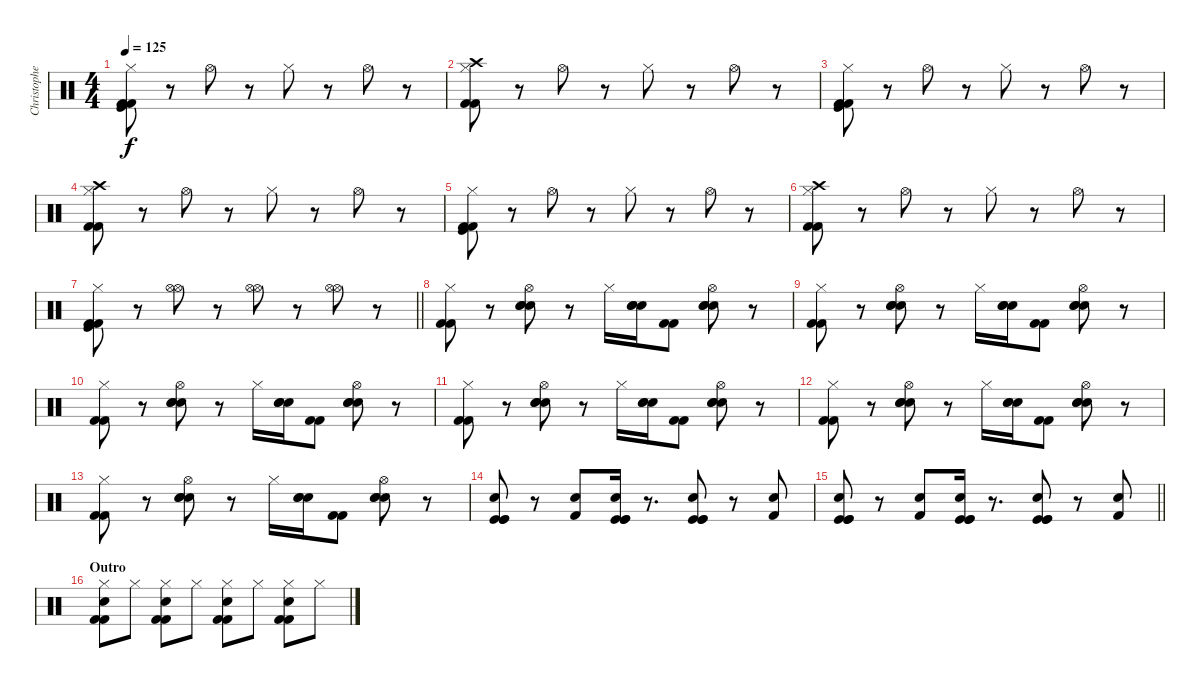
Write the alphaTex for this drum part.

\track ("Christopher S. (Drums)" "Christophe") {instrument percussion}
\staff {score}
\articulation defaults
\ts (4 4)
\tempo 125
\clef neutral
\ks c
("Hi-Hat (closed)" "Kick (hit) 2" "Kick (hit) 2" "Kick (hit)").8{dy f} r.8 "Hi-Hat (open)".8 r.8 "Hi-Hat (closed)".8 r.8 "Hi-Hat (open)".8 r.8 |
("Hi-Hat (closed)" "Kick (hit) 2" "Kick (hit) 2" "Crash high (hit)").8 r.8 "Hi-Hat (open)".8 r.8 "Hi-Hat (closed)".8 r.8 "Hi-Hat (open)".8 r.8 |
("Hi-Hat (closed)" "Kick (hit) 2" "Kick (hit) 2" "Kick (hit)").8 r.8 "Hi-Hat (open)".8 r.8 "Hi-Hat (closed)".8 r.8 "Hi-Hat (open)".8 r.8 |
("Hi-Hat (closed)" "Kick (hit) 2" "Kick (hit) 2" "Crash high (hit)").8 r.8 "Hi-Hat (open)".8 r.8 "Hi-Hat (closed)".8 r.8 "Hi-Hat (open)".8 r.8 |
("Hi-Hat (closed)" "Kick (hit) 2" "Kick (hit) 2" "Kick (hit)").8 r.8 "Hi-Hat (open)".8 r.8 "Hi-Hat (closed)".8 r.8 "Hi-Hat (open)".8 r.8 |
("Hi-Hat (closed)" "Kick (hit) 2" "Kick (hit) 2" "Crash high (hit)").8 r.8 "Hi-Hat (open)".8 r.8 "Hi-Hat (closed)".8 r.8 "Hi-Hat (open)".8 r.8 |
\barLineRight lightlight
("Hi-Hat (closed)" "Kick (hit) 2" "Kick (hit) 2" "Kick (hit)").8 r.8 ("Hi-Hat (open)" "Hi-Hat (open)").8 r.8 ("Hi-Hat (open)" "Hi-Hat (open)").8 r.8 ("Hi-Hat (open)" "Hi-Hat (open)").8 r.8 |
("Hi-Hat (closed)" "Kick (hit) 2" "Kick (hit) 2").8{volume 16} r.8 ("Hi-Hat (open)" "Electric Snare (hit)" "Electric Snare (hit)" "Electric Snare (hit)").8 r.8 "Hi-Hat (closed)".16 ("Electric Snare (hit)" "Electric Snare (hit)" "Electric Snare (hit)").16 ("Kick (hit) 2" "Kick (hit) 2").8 ("Hi-Hat (open)" "Electric Snare (hit)" "Electric Snare (hit)" "Electric Snare (hit)").8 r.8 |
("Hi-Hat (closed)" "Kick (hit) 2" "Kick (hit) 2").8 r.8 ("Hi-Hat (open)" "Electric Snare (hit)" "Electric Snare (hit)" "Electric Snare (hit)").8 r.8 "Hi-Hat (closed)".16 ("Electric Snare (hit)" "Electric Snare (hit)" "Electric Snare (hit)").16 ("Kick (hit) 2" "Kick (hit) 2").8 ("Hi-Hat (open)" "Electric Snare (hit)" "Electric Snare (hit)" "Electric Snare (hit)").8 r.8 |
("Hi-Hat (closed)" "Kick (hit) 2" "Kick (hit) 2").8 r.8 ("Hi-Hat (open)" "Electric Snare (hit)" "Electric Snare (hit)" "Electric Snare (hit)").8 r.8 "Hi-Hat (closed)".16 ("Electric Snare (hit)" "Electric Snare (hit)" "Electric Snare (hit)").16 ("Kick (hit) 2" "Kick (hit) 2").8 ("Hi-Hat (open)" "Electric Snare (hit)" "Electric Snare (hit)" "Electric Snare (hit)").8 r.8 |
("Hi-Hat (closed)" "Kick (hit) 2" "Kick (hit) 2").8 r.8 ("Hi-Hat (open)" "Electric Snare (hit)" "Electric Snare (hit)" "Electric Snare (hit)").8 r.8 "Hi-Hat (closed)".16 ("Electric Snare (hit)" "Electric Snare (hit)" "Electric Snare (hit)").16 ("Kick (hit) 2" "Kick (hit) 2").8 ("Hi-Hat (open)" "Electric Snare (hit)" "Electric Snare (hit)" "Electric Snare (hit)").8 r.8 |
("Hi-Hat (closed)" "Kick (hit) 2" "Kick (hit) 2").8 r.8 ("Hi-Hat (open)" "Electric Snare (hit)" "Electric Snare (hit)" "Electric Snare (hit)").8 r.8 "Hi-Hat (closed)".16 ("Electric Snare (hit)" "Electric Snare (hit)" "Electric Snare (hit)").16 ("Kick (hit) 2" "Kick (hit) 2").8 ("Hi-Hat (open)" "Electric Snare (hit)" "Electric Snare (hit)" "Electric Snare (hit)").8 r.8 |
("Hi-Hat (closed)" "Kick (hit) 2" "Kick (hit) 2").8 r.8 ("Hi-Hat (open)" "Electric Snare (hit)" "Electric Snare (hit)" "Electric Snare (hit)").8 r.8 "Hi-Hat (closed)".16 ("Electric Snare (hit)" "Electric Snare (hit)" "Electric Snare (hit)").16 ("Kick (hit) 2" "Kick (hit) 2").8 ("Hi-Hat (open)" "Electric Snare (hit)" "Electric Snare (hit)" "Electric Snare (hit)").8 r.8 |
("Snare (hit) 2" "Kick (hit)" "Kick (hit)" "Kick (hit)").8 r.8 ("Electric Snare (hit)" "Kick (hit) 2").8 ("Snare (hit) 2" "Kick (hit)" "Kick (hit)" "Kick (hit)").16 r.8{d} ("Snare (hit) 2" "Kick (hit)" "Kick (hit)" "Kick (hit)").8 r.8 ("Electric Snare (hit)" "Kick (hit) 2").8 |
\barLineRight lightlight
("Snare (hit) 2" "Kick (hit)" "Kick (hit)" "Kick (hit)").8 r.8 ("Electric Snare (hit)" "Kick (hit) 2").8 ("Snare (hit) 2" "Kick (hit)" "Kick (hit)" "Kick (hit)").16 r.8{d} ("Snare (hit) 2" "Kick (hit)" "Kick (hit)" "Kick (hit)").8 r.8 ("Electric Snare (hit)" "Kick (hit) 2").8 |
\section ("" "Outro")
("Hi-Hat (closed)" "Kick (hit) 2" "Kick (hit) 2" "Electric Snare (hit)").8 "Hi-Hat (closed)".8 ("Hi-Hat (closed)" "Kick (hit) 2" "Kick (hit) 2" "Electric Snare (hit)").8 "Hi-Hat (closed)".8 ("Hi-Hat (closed)" "Kick (hit) 2" "Kick (hit) 2" "Electric Snare (hit)").8 "Hi-Hat (closed)".8 ("Hi-Hat (closed)" "Kick (hit) 2" "Kick (hit) 2" "Electric Snare (hit)").8 "Hi-Hat (closed)".8
